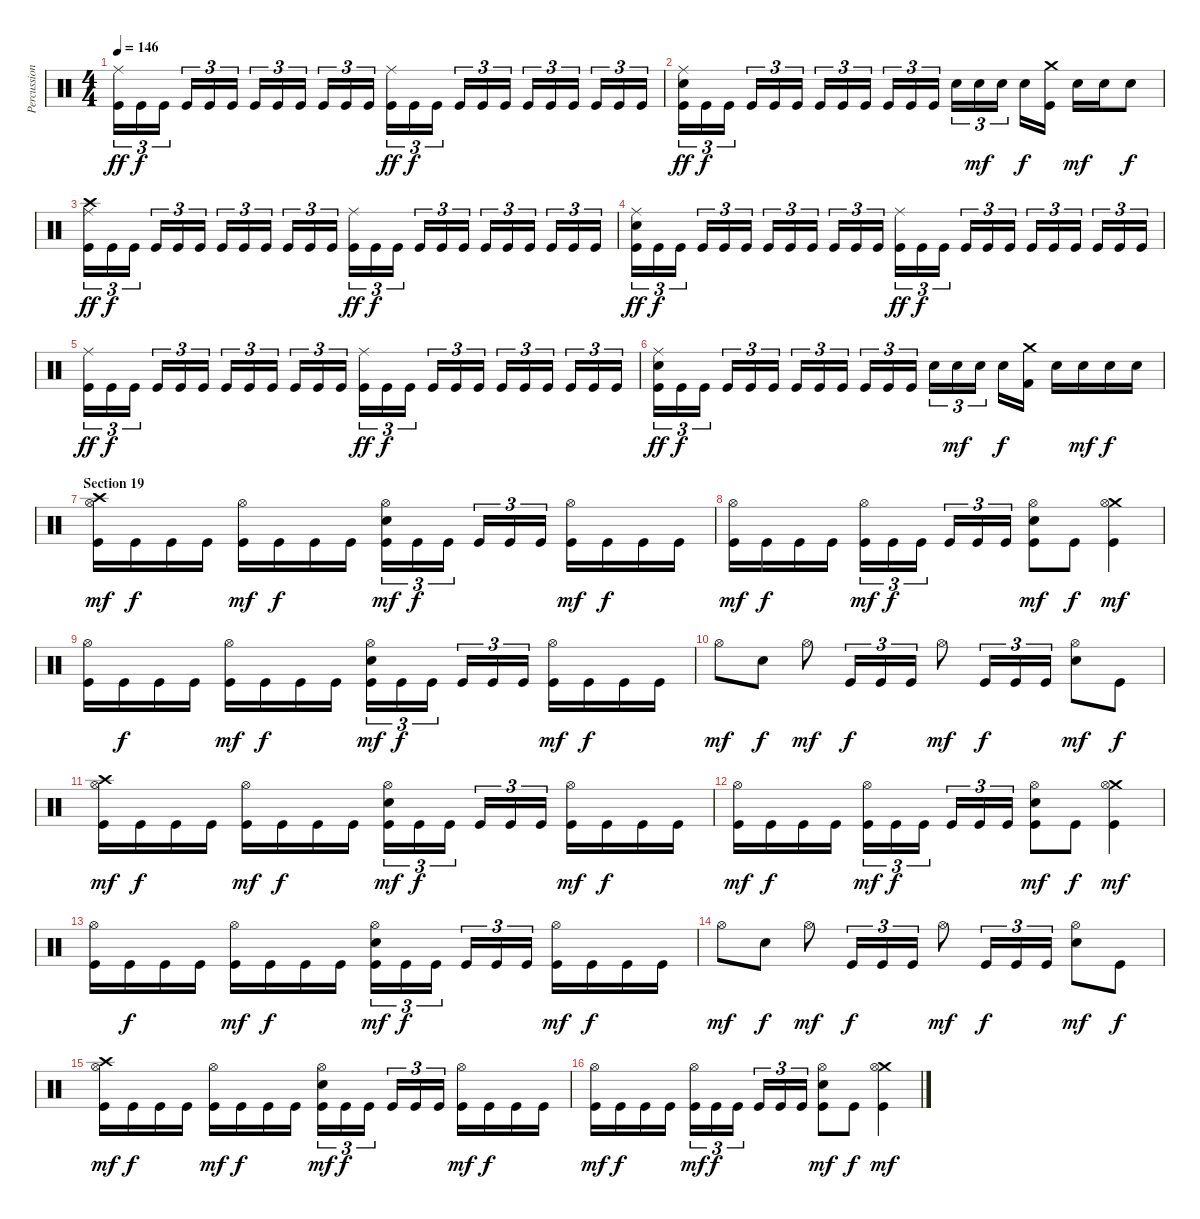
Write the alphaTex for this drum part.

\track ("Percussion" "Percussion") {instrument percussion}
\staff {score}
\articulation defaults
\ts (4 4)
\tempo 146
\clef neutral
\ks c
("Ride (middle)" "Kick (hit)").16{tu (3 2) dy ff} "Kick (hit)".16{tu (3 2) dy f} "Kick (hit)".16{tu (3 2) beam splitsecondary} "Kick (hit)".16{tu (3 2)} "Kick (hit)".16{tu (3 2)} "Kick (hit)".16{tu (3 2)} "Kick (hit)".16{tu (3 2)} "Kick (hit)".16{tu (3 2)} "Kick (hit)".16{tu (3 2) beam splitsecondary} "Kick (hit)".16{tu (3 2)} "Kick (hit)".16{tu (3 2)} "Kick (hit)".16{tu (3 2)} ("Ride (middle)" "Kick (hit)").16{tu (3 2) dy ff} "Kick (hit)".16{tu (3 2) dy f} "Kick (hit)".16{tu (3 2) beam splitsecondary} "Kick (hit)".16{tu (3 2)} "Kick (hit)".16{tu (3 2)} "Kick (hit)".16{tu (3 2)} "Kick (hit)".16{tu (3 2)} "Kick (hit)".16{tu (3 2)} "Kick (hit)".16{tu (3 2) beam splitsecondary} "Kick (hit)".16{tu (3 2)} "Kick (hit)".16{tu (3 2)} "Kick (hit)".16{tu (3 2)} |
("Ride (middle)" "Electric Snare (hit)" "Kick (hit)").16{tu (3 2) dy ff} "Kick (hit)".16{tu (3 2) dy f} "Kick (hit)".16{tu (3 2) beam splitsecondary} "Kick (hit)".16{tu (3 2)} "Kick (hit)".16{tu (3 2)} "Kick (hit)".16{tu (3 2)} "Kick (hit)".16{tu (3 2)} "Kick (hit)".16{tu (3 2)} "Kick (hit)".16{tu (3 2) beam splitsecondary} "Kick (hit)".16{tu (3 2)} "Kick (hit)".16{tu (3 2)} "Kick (hit)".16{tu (3 2)} "Electric Snare (hit)".16{tu (3 2)} "Electric Snare (hit)".16{tu (3 2) dy mf} "Electric Snare (hit)".16{tu (3 2) beam splitsecondary} "Electric Snare (hit)".16{dy f} ("Crash medium (hit)" "Kick (hit)").16 "Electric Snare (hit)".16{dy mf} "Electric Snare (hit)".16 "Electric Snare (hit)".8{dy f} |
("Crash high (hit)" "Ride (middle)" "Kick (hit)").16{tu (3 2) dy ff} "Kick (hit)".16{tu (3 2) dy f} "Kick (hit)".16{tu (3 2) beam splitsecondary} "Kick (hit)".16{tu (3 2)} "Kick (hit)".16{tu (3 2)} "Kick (hit)".16{tu (3 2)} "Kick (hit)".16{tu (3 2)} "Kick (hit)".16{tu (3 2)} "Kick (hit)".16{tu (3 2) beam splitsecondary} "Kick (hit)".16{tu (3 2)} "Kick (hit)".16{tu (3 2)} "Kick (hit)".16{tu (3 2)} ("Ride (middle)" "Kick (hit)").16{tu (3 2) dy ff} "Kick (hit)".16{tu (3 2) dy f} "Kick (hit)".16{tu (3 2) beam splitsecondary} "Kick (hit)".16{tu (3 2)} "Kick (hit)".16{tu (3 2)} "Kick (hit)".16{tu (3 2)} "Kick (hit)".16{tu (3 2)} "Kick (hit)".16{tu (3 2)} "Kick (hit)".16{tu (3 2) beam splitsecondary} "Kick (hit)".16{tu (3 2)} "Kick (hit)".16{tu (3 2)} "Kick (hit)".16{tu (3 2)} |
("Ride (middle)" "Electric Snare (hit)" "Kick (hit)").16{tu (3 2) dy ff} "Kick (hit)".16{tu (3 2) dy f} "Kick (hit)".16{tu (3 2) beam splitsecondary} "Kick (hit)".16{tu (3 2)} "Kick (hit)".16{tu (3 2)} "Kick (hit)".16{tu (3 2)} "Kick (hit)".16{tu (3 2)} "Kick (hit)".16{tu (3 2)} "Kick (hit)".16{tu (3 2) beam splitsecondary} "Kick (hit)".16{tu (3 2)} "Kick (hit)".16{tu (3 2)} "Kick (hit)".16{tu (3 2)} ("Ride (middle)" "Kick (hit)").16{tu (3 2) dy ff} "Kick (hit)".16{tu (3 2) dy f} "Kick (hit)".16{tu (3 2) beam splitsecondary} "Kick (hit)".16{tu (3 2)} "Kick (hit)".16{tu (3 2)} "Kick (hit)".16{tu (3 2)} "Kick (hit)".16{tu (3 2)} "Kick (hit)".16{tu (3 2)} "Kick (hit)".16{tu (3 2) beam splitsecondary} "Kick (hit)".16{tu (3 2)} "Kick (hit)".16{tu (3 2)} "Kick (hit)".16{tu (3 2)} |
("Ride (middle)" "Kick (hit)").16{tu (3 2) dy ff} "Kick (hit)".16{tu (3 2) dy f} "Kick (hit)".16{tu (3 2) beam splitsecondary} "Kick (hit)".16{tu (3 2)} "Kick (hit)".16{tu (3 2)} "Kick (hit)".16{tu (3 2)} "Kick (hit)".16{tu (3 2)} "Kick (hit)".16{tu (3 2)} "Kick (hit)".16{tu (3 2) beam splitsecondary} "Kick (hit)".16{tu (3 2)} "Kick (hit)".16{tu (3 2)} "Kick (hit)".16{tu (3 2)} ("Ride (middle)" "Kick (hit)").16{tu (3 2) dy ff} "Kick (hit)".16{tu (3 2) dy f} "Kick (hit)".16{tu (3 2) beam splitsecondary} "Kick (hit)".16{tu (3 2)} "Kick (hit)".16{tu (3 2)} "Kick (hit)".16{tu (3 2)} "Kick (hit)".16{tu (3 2)} "Kick (hit)".16{tu (3 2)} "Kick (hit)".16{tu (3 2) beam splitsecondary} "Kick (hit)".16{tu (3 2)} "Kick (hit)".16{tu (3 2)} "Kick (hit)".16{tu (3 2)} |
("Ride (middle)" "Electric Snare (hit)" "Kick (hit)").16{tu (3 2) dy ff} "Kick (hit)".16{tu (3 2) dy f} "Kick (hit)".16{tu (3 2) beam splitsecondary} "Kick (hit)".16{tu (3 2)} "Kick (hit)".16{tu (3 2)} "Kick (hit)".16{tu (3 2)} "Kick (hit)".16{tu (3 2)} "Kick (hit)".16{tu (3 2)} "Kick (hit)".16{tu (3 2) beam splitsecondary} "Kick (hit)".16{tu (3 2)} "Kick (hit)".16{tu (3 2)} "Kick (hit)".16{tu (3 2)} "Electric Snare (hit)".16{tu (3 2)} "Electric Snare (hit)".16{tu (3 2) dy mf} "Electric Snare (hit)".16{tu (3 2) beam splitsecondary} "Electric Snare (hit)".16{dy f} ("Crash medium (hit)" "Kick (hit) 2").16 "Electric Snare (hit)".16 "Electric Snare (hit)".16{dy mf} "Electric Snare (hit)".16{dy f} "Electric Snare (hit)".16 |
\section ("" "Section 19")
("Crash high (hit)" "Hi-Hat (open)" "Kick (hit)").16{dy mf} "Kick (hit)".16{dy f} "Kick (hit)".16 "Kick (hit)".16 ("Hi-Hat (open)" "Kick (hit)").16{dy mf} "Kick (hit)".16{dy f} "Kick (hit)".16 "Kick (hit)".16 ("Hi-Hat (open)" "Electric Snare (hit)" "Kick (hit)").16{tu (3 2) dy mf} "Kick (hit)".16{tu (3 2) dy f} "Kick (hit)".16{tu (3 2) beam splitsecondary} "Kick (hit)".16{tu (3 2)} "Kick (hit)".16{tu (3 2)} "Kick (hit)".16{tu (3 2)} ("Hi-Hat (open)" "Kick (hit)").16{dy mf} "Kick (hit)".16{dy f} "Kick (hit)".16 "Kick (hit)".16 |
("Hi-Hat (open)" "Kick (hit)").16{dy mf} "Kick (hit)".16{dy f} "Kick (hit)".16 "Kick (hit)".16 ("Hi-Hat (open)" "Kick (hit)").16{tu (3 2) dy mf} "Kick (hit)".16{tu (3 2) dy f} "Kick (hit)".16{tu (3 2) beam splitsecondary} "Kick (hit)".16{tu (3 2)} "Kick (hit)".16{tu (3 2)} "Kick (hit)".16{tu (3 2)} ("Hi-Hat (open)" "Electric Snare (hit)" "Kick (hit)").8{dy mf} "Kick (hit)".8{dy f} ("Crash medium (hit)" "Hi-Hat (open)" "Kick (hit)").4{dy mf} |
("Hi-Hat (open)" "Kick (hit)").16 "Kick (hit)".16{dy f} "Kick (hit)".16 "Kick (hit)".16 ("Hi-Hat (open)" "Kick (hit)").16{dy mf} "Kick (hit)".16{dy f} "Kick (hit)".16 "Kick (hit)".16 ("Hi-Hat (open)" "Electric Snare (hit)" "Kick (hit)").16{tu (3 2) dy mf} "Kick (hit)".16{tu (3 2) dy f} "Kick (hit)".16{tu (3 2) beam splitsecondary} "Kick (hit)".16{tu (3 2)} "Kick (hit)".16{tu (3 2)} "Kick (hit)".16{tu (3 2)} ("Hi-Hat (open)" "Kick (hit)").16{dy mf} "Kick (hit)".16{dy f} "Kick (hit)".16 "Kick (hit)".16 |
"Hi-Hat (open)".8{dy mf} "Electric Snare (hit)".8{dy f} "Hi-Hat (open)".8{dy mf} "Kick (hit)".16{tu (3 2) dy f} "Kick (hit)".16{tu (3 2)} "Kick (hit)".16{tu (3 2)} "Hi-Hat (open)".8{dy mf} "Kick (hit)".16{tu (3 2) dy f} "Kick (hit)".16{tu (3 2)} "Kick (hit)".16{tu (3 2)} ("Hi-Hat (open)" "Electric Snare (hit)").8{dy mf} "Kick (hit)".8{dy f} |
("Crash high (hit)" "Hi-Hat (open)" "Kick (hit)").16{dy mf} "Kick (hit)".16{dy f} "Kick (hit)".16 "Kick (hit)".16 ("Hi-Hat (open)" "Kick (hit)").16{dy mf} "Kick (hit)".16{dy f} "Kick (hit)".16 "Kick (hit)".16 ("Hi-Hat (open)" "Electric Snare (hit)" "Kick (hit)").16{tu (3 2) dy mf} "Kick (hit)".16{tu (3 2) dy f} "Kick (hit)".16{tu (3 2) beam splitsecondary} "Kick (hit)".16{tu (3 2)} "Kick (hit)".16{tu (3 2)} "Kick (hit)".16{tu (3 2)} ("Hi-Hat (open)" "Kick (hit)").16{dy mf} "Kick (hit)".16{dy f} "Kick (hit)".16 "Kick (hit)".16 |
("Hi-Hat (open)" "Kick (hit)").16{dy mf} "Kick (hit)".16{dy f} "Kick (hit)".16 "Kick (hit)".16 ("Hi-Hat (open)" "Kick (hit)").16{tu (3 2) dy mf} "Kick (hit)".16{tu (3 2) dy f} "Kick (hit)".16{tu (3 2) beam splitsecondary} "Kick (hit)".16{tu (3 2)} "Kick (hit)".16{tu (3 2)} "Kick (hit)".16{tu (3 2)} ("Hi-Hat (open)" "Electric Snare (hit)" "Kick (hit)").8{dy mf} "Kick (hit)".8{dy f} ("Crash medium (hit)" "Hi-Hat (open)" "Kick (hit)").4{dy mf} |
("Hi-Hat (open)" "Kick (hit)").16 "Kick (hit)".16{dy f} "Kick (hit)".16 "Kick (hit)".16 ("Hi-Hat (open)" "Kick (hit)").16{dy mf} "Kick (hit)".16{dy f} "Kick (hit)".16 "Kick (hit)".16 ("Hi-Hat (open)" "Electric Snare (hit)" "Kick (hit)").16{tu (3 2) dy mf} "Kick (hit)".16{tu (3 2) dy f} "Kick (hit)".16{tu (3 2) beam splitsecondary} "Kick (hit)".16{tu (3 2)} "Kick (hit)".16{tu (3 2)} "Kick (hit)".16{tu (3 2)} ("Hi-Hat (open)" "Kick (hit)").16{dy mf} "Kick (hit)".16{dy f} "Kick (hit)".16 "Kick (hit)".16 |
"Hi-Hat (open)".8{dy mf} "Electric Snare (hit)".8{dy f} "Hi-Hat (open)".8{dy mf} "Kick (hit)".16{tu (3 2) dy f} "Kick (hit)".16{tu (3 2)} "Kick (hit)".16{tu (3 2)} "Hi-Hat (open)".8{dy mf} "Kick (hit)".16{tu (3 2) dy f} "Kick (hit)".16{tu (3 2)} "Kick (hit)".16{tu (3 2)} ("Hi-Hat (open)" "Electric Snare (hit)").8{dy mf} "Kick (hit)".8{dy f} |
("Crash high (hit)" "Hi-Hat (open)" "Kick (hit)").16{dy mf} "Kick (hit)".16{dy f} "Kick (hit)".16 "Kick (hit)".16 ("Hi-Hat (open)" "Kick (hit)").16{dy mf} "Kick (hit)".16{dy f} "Kick (hit)".16 "Kick (hit)".16 ("Hi-Hat (open)" "Electric Snare (hit)" "Kick (hit)").16{tu (3 2) dy mf} "Kick (hit)".16{tu (3 2) dy f} "Kick (hit)".16{tu (3 2) beam splitsecondary} "Kick (hit)".16{tu (3 2)} "Kick (hit)".16{tu (3 2)} "Kick (hit)".16{tu (3 2)} ("Hi-Hat (open)" "Kick (hit)").16{dy mf} "Kick (hit)".16{dy f} "Kick (hit)".16 "Kick (hit)".16 |
("Hi-Hat (open)" "Kick (hit)").16{dy mf} "Kick (hit)".16{dy f} "Kick (hit)".16 "Kick (hit)".16 ("Hi-Hat (open)" "Kick (hit)").16{tu (3 2) dy mf} "Kick (hit)".16{tu (3 2) dy f} "Kick (hit)".16{tu (3 2) beam splitsecondary} "Kick (hit)".16{tu (3 2)} "Kick (hit)".16{tu (3 2)} "Kick (hit)".16{tu (3 2)} ("Hi-Hat (open)" "Electric Snare (hit)" "Kick (hit)").8{dy mf} "Kick (hit)".8{dy f} ("Crash medium (hit)" "Hi-Hat (open)" "Kick (hit)").4{dy mf}
